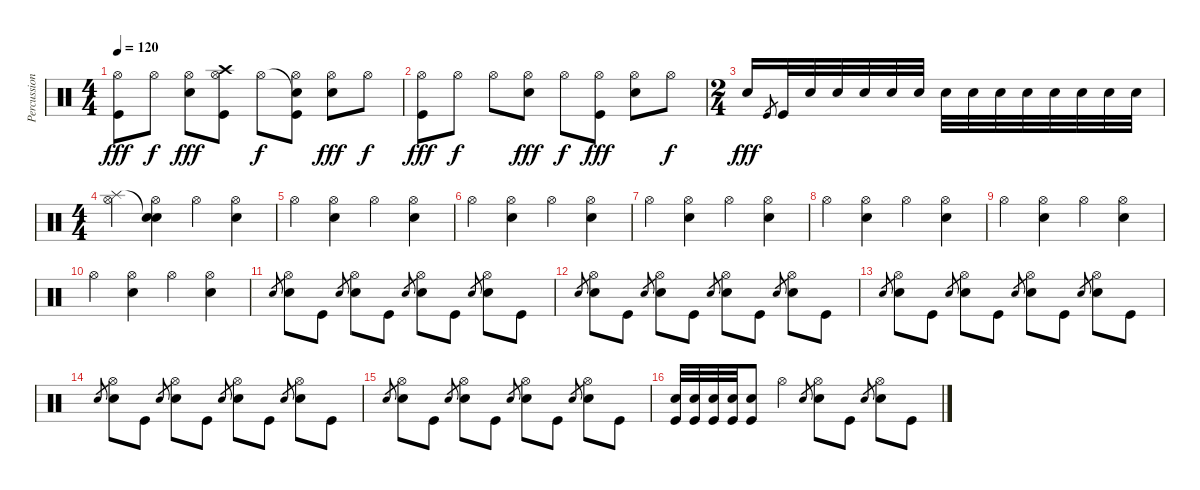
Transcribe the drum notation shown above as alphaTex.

\track ("Percussion" "Percussion") {solo instrument percussion}
\staff {score}
\articulation defaults
\ts (4 4)
\tempo 120
\clef neutral
\ks c
("Hi-Hat (open)" "Kick (hit)").8{dy fff} "Hi-Hat (open)".8{dy f} ("Hi-Hat (open)" "Snare (hit) 2").8{dy fff} ("Crash high (hit)" "Hi-Hat (open)" "Kick (hit)").8 "Hi-Hat (open)".8{dy f} ("Snare (hit)"{t} "Hi-Hat (open)" "Kick (hit)").8 ("Hi-Hat (open)" "Snare (hit) 2").8{dy fff} "Hi-Hat (open)".8{dy f} |
("Hi-Hat (open)" "Kick (hit)").8{dy fff} "Hi-Hat (open)".8{dy f} "Hi-Hat (open)".8 ("Hi-Hat (open)" "Snare (hit) 2").8{dy fff} "Hi-Hat (open)".8{dy f} ("Hi-Hat (open)" "Kick (hit)").8{dy fff} ("Hi-Hat (open)" "Snare (hit) 2").8 "Hi-Hat (open)".8{dy f} |
\ts (2 4)
"Snare (hit) 2".16{dy fff} "Kick (hit)".8{gr} "Kick (hit)".32 "Snare (hit) 2".32 "Snare (hit) 2".32 "Snare (hit) 2".32 "Snare (hit) 2".32 "Snare (hit) 2".32 "Snare (hit) 2".32 "Snare (hit) 2".32 "Snare (hit) 2".32 "Snare (hit) 2".32 "Snare (hit) 2".32 "Snare (hit) 2".32 "Snare (hit) 2".32 "Snare (hit) 2".32 |
\ts (4 4)
("Splash (hit)" "Hi-Hat (open)").4 ("Snare (hit)"{t} "Hi-Hat (open)" "Snare (hit) 2").4 "Hi-Hat (open)".4 ("Hi-Hat (open)" "Snare (hit) 2").4 |
"Hi-Hat (open)".4 ("Hi-Hat (open)" "Snare (hit) 2").4 "Hi-Hat (open)".4 ("Hi-Hat (open)" "Snare (hit) 2").4 |
"Hi-Hat (open)".4 ("Hi-Hat (open)" "Snare (hit) 2").4 "Hi-Hat (open)".4 ("Hi-Hat (open)" "Snare (hit) 2").4 |
"Hi-Hat (open)".4 ("Hi-Hat (open)" "Snare (hit) 2").4 "Hi-Hat (open)".4 ("Hi-Hat (open)" "Snare (hit) 2").4 |
"Hi-Hat (open)".4 ("Hi-Hat (open)" "Snare (hit) 2").4 "Hi-Hat (open)".4 ("Hi-Hat (open)" "Snare (hit) 2").4 |
"Hi-Hat (open)".4 ("Hi-Hat (open)" "Snare (hit) 2").4 "Hi-Hat (open)".4 ("Hi-Hat (open)" "Snare (hit) 2").4 |
"Hi-Hat (open)".4 ("Hi-Hat (open)" "Snare (hit) 2").4 "Hi-Hat (open)".4 ("Hi-Hat (open)" "Snare (hit) 2").4 |
"Snare (hit) 2".8{gr} ("Hi-Hat (open)" "Snare (hit) 2").8 "Kick (hit)".8 "Snare (hit) 2".8{gr} ("Hi-Hat (open)" "Snare (hit) 2").8 "Kick (hit)".8 "Snare (hit) 2".8{gr} ("Hi-Hat (open)" "Snare (hit) 2").8 "Kick (hit)".8 "Snare (hit) 2".8{gr} ("Hi-Hat (open)" "Snare (hit) 2").8 "Kick (hit)".8 |
"Snare (hit) 2".8{gr} ("Hi-Hat (open)" "Snare (hit) 2").8 "Kick (hit)".8 "Snare (hit) 2".8{gr} ("Hi-Hat (open)" "Snare (hit) 2").8 "Kick (hit)".8 "Snare (hit) 2".8{gr} ("Hi-Hat (open)" "Snare (hit) 2").8 "Kick (hit)".8 "Snare (hit) 2".8{gr} ("Hi-Hat (open)" "Snare (hit) 2").8 "Kick (hit)".8 |
"Snare (hit) 2".8{gr} ("Hi-Hat (open)" "Snare (hit) 2").8 "Kick (hit)".8 "Snare (hit) 2".8{gr} ("Hi-Hat (open)" "Snare (hit) 2").8 "Kick (hit)".8 "Snare (hit) 2".8{gr} ("Hi-Hat (open)" "Snare (hit) 2").8 "Kick (hit)".8 "Snare (hit) 2".8{gr} ("Hi-Hat (open)" "Snare (hit) 2").8 "Kick (hit)".8 |
"Snare (hit) 2".8{gr} ("Hi-Hat (open)" "Snare (hit) 2").8 "Kick (hit)".8 "Snare (hit) 2".8{gr} ("Hi-Hat (open)" "Snare (hit) 2").8 "Kick (hit)".8 "Snare (hit) 2".8{gr} ("Hi-Hat (open)" "Snare (hit) 2").8 "Kick (hit)".8 "Snare (hit) 2".8{gr} ("Hi-Hat (open)" "Snare (hit) 2").8 "Kick (hit)".8 |
"Snare (hit) 2".8{gr} ("Hi-Hat (open)" "Snare (hit) 2").8 "Kick (hit)".8 "Snare (hit) 2".8{gr} ("Hi-Hat (open)" "Snare (hit) 2").8 "Kick (hit)".8 "Snare (hit) 2".8{gr} ("Hi-Hat (open)" "Snare (hit) 2").8 "Kick (hit)".8 "Snare (hit) 2".8{gr} ("Hi-Hat (open)" "Snare (hit) 2").8 "Kick (hit)".8 |
("Kick (hit)" "Snare (hit) 2").32 ("Kick (hit)" "Snare (hit) 2").32 ("Kick (hit)" "Snare (hit) 2").32 ("Kick (hit)" "Snare (hit) 2").32 ("Kick (hit)" "Snare (hit) 2").8 "Hi-Hat (open)".4 "Snare (hit) 2".8{gr} ("Hi-Hat (open)" "Snare (hit) 2").8 "Kick (hit)".8 "Snare (hit) 2".8{gr} ("Hi-Hat (open)" "Snare (hit) 2").8 "Kick (hit)".8
